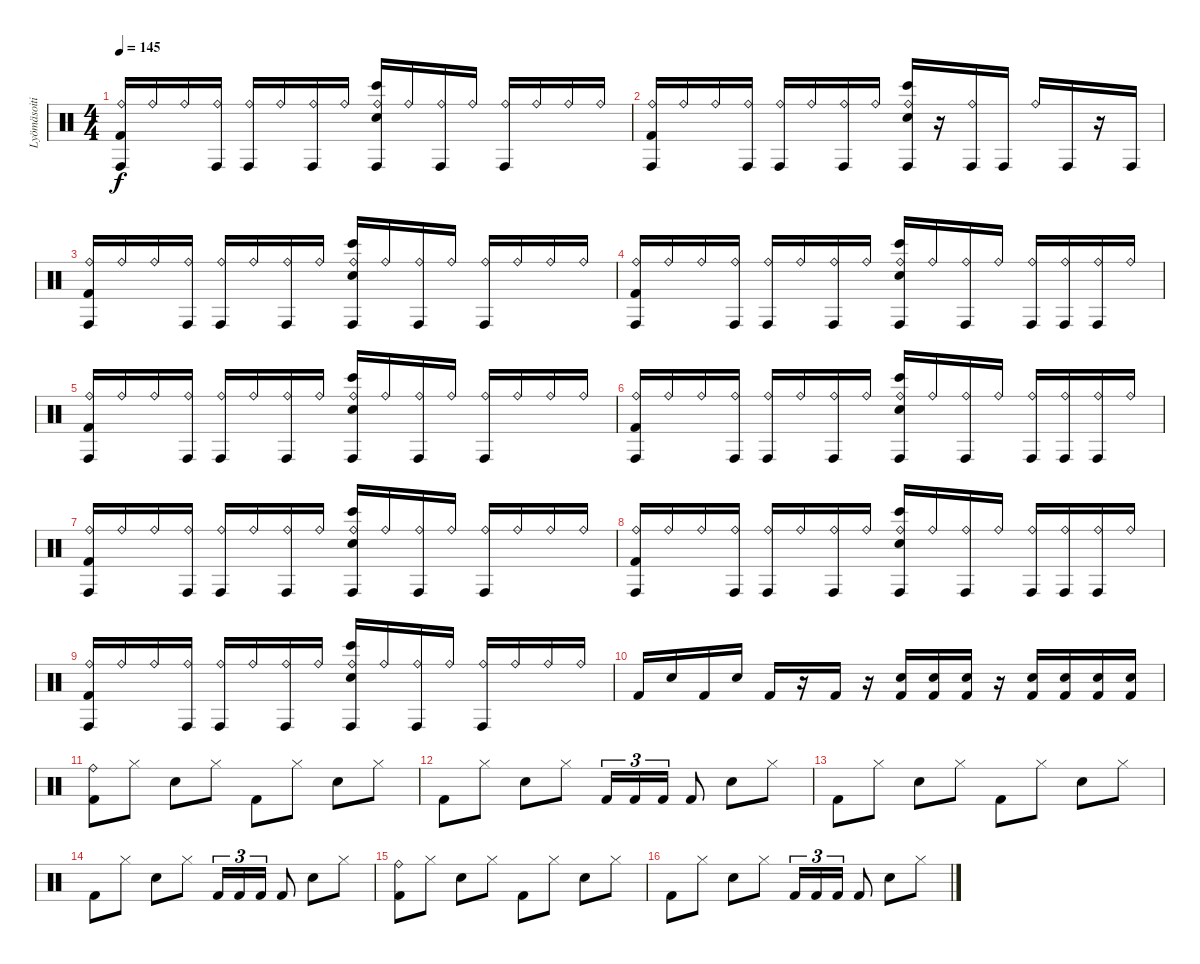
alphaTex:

\track ("Lyömäsoitin" "Lyömäsoiti") {instrument percussion}
\staff {score}
\articulation defaults
\ts (4 4)
\tempo 145
\clef neutral
\ks c
("Ride (bell)" "Conga high (hit)" "Kick (hit) 2").16{dy f} "Ride (bell)".16 "Ride (bell)".16 ("Ride (bell)" "Conga high (hit)").16 ("Ride (bell)" "Conga high (hit)").16 "Ride (bell)".16 ("Ride (bell)" "Conga high (hit)").16 "Ride (bell)".16 ("Ride (bell)" "Conga high (hit)" "Bongo High (hit)" "Electric Snare (hit)").16 "Ride (bell)".16 ("Ride (bell)" "Conga high (hit)").16 "Ride (bell)".16 ("Ride (bell)" "Conga high (hit)").16 "Ride (bell)".16 "Ride (bell)".16 "Ride (bell)".16 |
("Ride (bell)" "Conga high (hit)" "Kick (hit) 2").16 "Ride (bell)".16 "Ride (bell)".16 ("Ride (bell)" "Conga high (hit)").16 ("Ride (bell)" "Conga high (hit)").16 "Ride (bell)".16 ("Ride (bell)" "Conga high (hit)").16 "Ride (bell)".16 ("Ride (bell)" "Conga high (hit)" "Bongo High (hit)" "Electric Snare (hit)").16 r.16 ("Ride (bell)" "Conga high (hit)").16 "Conga high (hit)".16 "Ride (bell)".16 "Conga high (hit)".16 r.16 "Conga high (hit)".16 |
("Ride (bell)" "Conga high (hit)" "Kick (hit) 2").16 "Ride (bell)".16 "Ride (bell)".16 ("Ride (bell)" "Conga high (hit)").16 ("Ride (bell)" "Conga high (hit)").16 "Ride (bell)".16 ("Ride (bell)" "Conga high (hit)").16 "Ride (bell)".16 ("Ride (bell)" "Conga high (hit)" "Bongo High (hit)" "Electric Snare (hit)").16 "Ride (bell)".16 ("Ride (bell)" "Conga high (hit)").16 "Ride (bell)".16 ("Ride (bell)" "Conga high (hit)").16 "Ride (bell)".16 "Ride (bell)".16 "Ride (bell)".16 |
("Ride (bell)" "Conga high (hit)" "Kick (hit) 2").16 "Ride (bell)".16 "Ride (bell)".16 ("Ride (bell)" "Conga high (hit)").16 ("Ride (bell)" "Conga high (hit)").16 "Ride (bell)".16 ("Ride (bell)" "Conga high (hit)").16 "Ride (bell)".16 ("Ride (bell)" "Conga high (hit)" "Bongo High (hit)" "Electric Snare (hit)").16 "Ride (bell)".16 ("Ride (bell)" "Conga high (hit)").16 "Ride (bell)".16 ("Ride (bell)" "Conga high (hit)").16 ("Ride (bell)" "Conga high (hit)").16 ("Ride (bell)" "Conga high (hit)").16 "Ride (bell)".16 |
("Ride (bell)" "Conga high (hit)" "Kick (hit) 2").16 "Ride (bell)".16 "Ride (bell)".16 ("Ride (bell)" "Conga high (hit)").16 ("Ride (bell)" "Conga high (hit)").16 "Ride (bell)".16 ("Ride (bell)" "Conga high (hit)").16 "Ride (bell)".16 ("Ride (bell)" "Conga high (hit)" "Bongo High (hit)" "Electric Snare (hit)").16 "Ride (bell)".16 ("Ride (bell)" "Conga high (hit)").16 "Ride (bell)".16 ("Ride (bell)" "Conga high (hit)").16 "Ride (bell)".16 "Ride (bell)".16 "Ride (bell)".16 |
("Ride (bell)" "Conga high (hit)" "Kick (hit) 2").16 "Ride (bell)".16 "Ride (bell)".16 ("Ride (bell)" "Conga high (hit)").16 ("Ride (bell)" "Conga high (hit)").16 "Ride (bell)".16 ("Ride (bell)" "Conga high (hit)").16 "Ride (bell)".16 ("Ride (bell)" "Conga high (hit)" "Bongo High (hit)" "Electric Snare (hit)").16 "Ride (bell)".16 ("Ride (bell)" "Conga high (hit)").16 "Ride (bell)".16 ("Ride (bell)" "Conga high (hit)").16 ("Ride (bell)" "Conga high (hit)").16 ("Ride (bell)" "Conga high (hit)").16 "Ride (bell)".16 |
("Ride (bell)" "Conga high (hit)" "Kick (hit) 2").16 "Ride (bell)".16 "Ride (bell)".16 ("Ride (bell)" "Conga high (hit)").16 ("Ride (bell)" "Conga high (hit)").16 "Ride (bell)".16 ("Ride (bell)" "Conga high (hit)").16 "Ride (bell)".16 ("Ride (bell)" "Conga high (hit)" "Bongo High (hit)" "Electric Snare (hit)").16 "Ride (bell)".16 ("Ride (bell)" "Conga high (hit)").16 "Ride (bell)".16 ("Ride (bell)" "Conga high (hit)").16 "Ride (bell)".16 "Ride (bell)".16 "Ride (bell)".16 |
("Ride (bell)" "Conga high (hit)" "Kick (hit) 2").16 "Ride (bell)".16 "Ride (bell)".16 ("Ride (bell)" "Conga high (hit)").16 ("Ride (bell)" "Conga high (hit)").16 "Ride (bell)".16 ("Ride (bell)" "Conga high (hit)").16 "Ride (bell)".16 ("Ride (bell)" "Conga high (hit)" "Bongo High (hit)" "Electric Snare (hit)").16 "Ride (bell)".16 ("Ride (bell)" "Conga high (hit)").16 "Ride (bell)".16 ("Ride (bell)" "Conga high (hit)").16 ("Ride (bell)" "Conga high (hit)").16 ("Ride (bell)" "Conga high (hit)").16 "Ride (bell)".16 |
("Ride (bell)" "Conga high (hit)" "Kick (hit) 2").16 "Ride (bell)".16 "Ride (bell)".16 ("Ride (bell)" "Conga high (hit)").16 ("Ride (bell)" "Conga high (hit)").16 "Ride (bell)".16 ("Ride (bell)" "Conga high (hit)").16 "Ride (bell)".16 ("Ride (bell)" "Conga high (hit)" "Bongo High (hit)" "Electric Snare (hit)").16 "Ride (bell)".16 ("Ride (bell)" "Conga high (hit)").16 "Ride (bell)".16 ("Ride (bell)" "Conga high (hit)").16 "Ride (bell)".16 "Ride (bell)".16 "Ride (bell)".16 |
"Kick (hit) 2".16 "Electric Snare (hit)".16 "Kick (hit) 2".16 "Electric Snare (hit)".16 "Kick (hit) 2".16 r.16 "Kick (hit) 2".16 r.16 ("Electric Snare (hit)" "Kick (hit) 2").16 ("Electric Snare (hit)" "Kick (hit) 2").16 ("Electric Snare (hit)" "Kick (hit) 2").16 r.16 ("Electric Snare (hit)" "Kick (hit) 2").16 ("Electric Snare (hit)" "Kick (hit) 2").16 ("Electric Snare (hit)" "Kick (hit) 2").16 ("Electric Snare (hit)" "Kick (hit) 2").16 |
("Ride (bell)" "Kick (hit) 2").8 "Hi-Hat (closed)".8 "Electric Snare (hit)".8 "Hi-Hat (closed)".8 "Kick (hit) 2".8 "Hi-Hat (closed)".8 "Electric Snare (hit)".8 "Hi-Hat (closed)".8 |
"Kick (hit) 2".8 "Hi-Hat (closed)".8 "Electric Snare (hit)".8 "Hi-Hat (closed)".8 "Kick (hit) 2".16{tu (3 2)} "Kick (hit) 2".16{tu (3 2)} "Kick (hit) 2".16{tu (3 2)} "Kick (hit) 2".8 "Electric Snare (hit)".8 "Hi-Hat (closed)".8 |
"Kick (hit) 2".8 "Hi-Hat (closed)".8 "Electric Snare (hit)".8 "Hi-Hat (closed)".8 "Kick (hit) 2".8 "Hi-Hat (closed)".8 "Electric Snare (hit)".8 "Hi-Hat (closed)".8 |
"Kick (hit) 2".8 "Hi-Hat (closed)".8 "Electric Snare (hit)".8 "Hi-Hat (closed)".8 "Kick (hit) 2".16{tu (3 2)} "Kick (hit) 2".16{tu (3 2)} "Kick (hit) 2".16{tu (3 2)} "Kick (hit) 2".8 "Electric Snare (hit)".8 "Hi-Hat (closed)".8 |
("Ride (bell)" "Kick (hit) 2").8 "Hi-Hat (closed)".8 "Electric Snare (hit)".8 "Hi-Hat (closed)".8 "Kick (hit) 2".8 "Hi-Hat (closed)".8 "Electric Snare (hit)".8 "Hi-Hat (closed)".8 |
"Kick (hit) 2".8 "Hi-Hat (closed)".8 "Electric Snare (hit)".8 "Hi-Hat (closed)".8 "Kick (hit) 2".16{tu (3 2)} "Kick (hit) 2".16{tu (3 2)} "Kick (hit) 2".16{tu (3 2)} "Kick (hit) 2".8 "Electric Snare (hit)".8 "Hi-Hat (closed)".8
